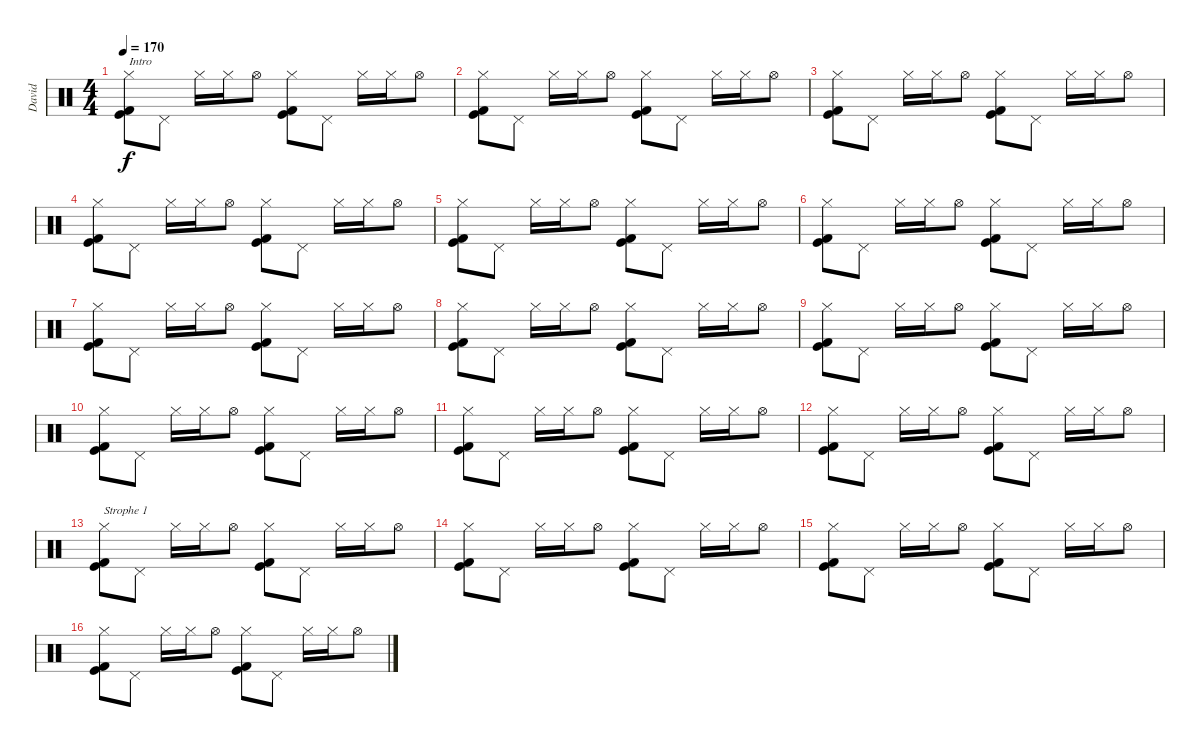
\track ("David" "David") {instrument percussion}
\staff {score}
\articulation defaults
\ts (4 4)
\tempo 170
\clef neutral
\ks c
("Hi-Hat (closed)" "Kick (hit) 2" "Kick (hit)").8{txt "Intro" dy f} "Pedal Hi-Hat (hit)".8 "Hi-Hat (closed)".16 "Hi-Hat (closed)".16 "Hi-Hat (open)".8 ("Hi-Hat (closed)" "Kick (hit) 2" "Kick (hit)").8 "Pedal Hi-Hat (hit)".8 "Hi-Hat (closed)".16 "Hi-Hat (closed)".16 "Hi-Hat (open)".8 |
("Hi-Hat (closed)" "Kick (hit) 2" "Kick (hit)").8 "Pedal Hi-Hat (hit)".8 "Hi-Hat (closed)".16 "Hi-Hat (closed)".16 "Hi-Hat (open)".8 ("Hi-Hat (closed)" "Kick (hit) 2" "Kick (hit)").8 "Pedal Hi-Hat (hit)".8 "Hi-Hat (closed)".16 "Hi-Hat (closed)".16 "Hi-Hat (open)".8 |
("Hi-Hat (closed)" "Kick (hit) 2" "Kick (hit)").8 "Pedal Hi-Hat (hit)".8 "Hi-Hat (closed)".16 "Hi-Hat (closed)".16 "Hi-Hat (open)".8 ("Hi-Hat (closed)" "Kick (hit) 2" "Kick (hit)").8 "Pedal Hi-Hat (hit)".8 "Hi-Hat (closed)".16 "Hi-Hat (closed)".16 "Hi-Hat (open)".8 |
("Hi-Hat (closed)" "Kick (hit) 2" "Kick (hit)").8 "Pedal Hi-Hat (hit)".8 "Hi-Hat (closed)".16 "Hi-Hat (closed)".16 "Hi-Hat (open)".8 ("Hi-Hat (closed)" "Kick (hit) 2" "Kick (hit)").8 "Pedal Hi-Hat (hit)".8 "Hi-Hat (closed)".16 "Hi-Hat (closed)".16 "Hi-Hat (open)".8 |
("Hi-Hat (closed)" "Kick (hit) 2" "Kick (hit)").8 "Pedal Hi-Hat (hit)".8 "Hi-Hat (closed)".16 "Hi-Hat (closed)".16 "Hi-Hat (open)".8 ("Hi-Hat (closed)" "Kick (hit) 2" "Kick (hit)").8 "Pedal Hi-Hat (hit)".8 "Hi-Hat (closed)".16 "Hi-Hat (closed)".16 "Hi-Hat (open)".8 |
("Hi-Hat (closed)" "Kick (hit) 2" "Kick (hit)").8 "Pedal Hi-Hat (hit)".8 "Hi-Hat (closed)".16 "Hi-Hat (closed)".16 "Hi-Hat (open)".8 ("Hi-Hat (closed)" "Kick (hit) 2" "Kick (hit)").8 "Pedal Hi-Hat (hit)".8 "Hi-Hat (closed)".16 "Hi-Hat (closed)".16 "Hi-Hat (open)".8 |
("Hi-Hat (closed)" "Kick (hit) 2" "Kick (hit)").8 "Pedal Hi-Hat (hit)".8 "Hi-Hat (closed)".16 "Hi-Hat (closed)".16 "Hi-Hat (open)".8 ("Hi-Hat (closed)" "Kick (hit) 2" "Kick (hit)").8 "Pedal Hi-Hat (hit)".8 "Hi-Hat (closed)".16 "Hi-Hat (closed)".16 "Hi-Hat (open)".8 |
("Hi-Hat (closed)" "Kick (hit) 2" "Kick (hit)").8 "Pedal Hi-Hat (hit)".8 "Hi-Hat (closed)".16 "Hi-Hat (closed)".16 "Hi-Hat (open)".8 ("Hi-Hat (closed)" "Kick (hit) 2" "Kick (hit)").8 "Pedal Hi-Hat (hit)".8 "Hi-Hat (closed)".16 "Hi-Hat (closed)".16 "Hi-Hat (open)".8 |
("Hi-Hat (closed)" "Kick (hit) 2" "Kick (hit)").8 "Pedal Hi-Hat (hit)".8 "Hi-Hat (closed)".16 "Hi-Hat (closed)".16 "Hi-Hat (open)".8 ("Hi-Hat (closed)" "Kick (hit) 2" "Kick (hit)").8 "Pedal Hi-Hat (hit)".8 "Hi-Hat (closed)".16 "Hi-Hat (closed)".16 "Hi-Hat (open)".8 |
("Hi-Hat (closed)" "Kick (hit) 2" "Kick (hit)").8 "Pedal Hi-Hat (hit)".8 "Hi-Hat (closed)".16 "Hi-Hat (closed)".16 "Hi-Hat (open)".8 ("Hi-Hat (closed)" "Kick (hit) 2" "Kick (hit)").8 "Pedal Hi-Hat (hit)".8 "Hi-Hat (closed)".16 "Hi-Hat (closed)".16 "Hi-Hat (open)".8 |
("Hi-Hat (closed)" "Kick (hit) 2" "Kick (hit)").8 "Pedal Hi-Hat (hit)".8 "Hi-Hat (closed)".16 "Hi-Hat (closed)".16 "Hi-Hat (open)".8 ("Hi-Hat (closed)" "Kick (hit) 2" "Kick (hit)").8 "Pedal Hi-Hat (hit)".8 "Hi-Hat (closed)".16 "Hi-Hat (closed)".16 "Hi-Hat (open)".8 |
("Hi-Hat (closed)" "Kick (hit) 2" "Kick (hit)").8 "Pedal Hi-Hat (hit)".8 "Hi-Hat (closed)".16 "Hi-Hat (closed)".16 "Hi-Hat (open)".8 ("Hi-Hat (closed)" "Kick (hit) 2" "Kick (hit)").8 "Pedal Hi-Hat (hit)".8 "Hi-Hat (closed)".16 "Hi-Hat (closed)".16 "Hi-Hat (open)".8 |
("Hi-Hat (closed)" "Kick (hit) 2" "Kick (hit)").8{txt "Strophe 1"} "Pedal Hi-Hat (hit)".8 "Hi-Hat (closed)".16 "Hi-Hat (closed)".16 "Hi-Hat (open)".8 ("Hi-Hat (closed)" "Kick (hit) 2" "Kick (hit)").8 "Pedal Hi-Hat (hit)".8 "Hi-Hat (closed)".16 "Hi-Hat (closed)".16 "Hi-Hat (open)".8 |
("Hi-Hat (closed)" "Kick (hit) 2" "Kick (hit)").8 "Pedal Hi-Hat (hit)".8 "Hi-Hat (closed)".16 "Hi-Hat (closed)".16 "Hi-Hat (open)".8 ("Hi-Hat (closed)" "Kick (hit) 2" "Kick (hit)").8 "Pedal Hi-Hat (hit)".8 "Hi-Hat (closed)".16 "Hi-Hat (closed)".16 "Hi-Hat (open)".8 |
("Hi-Hat (closed)" "Kick (hit) 2" "Kick (hit)").8 "Pedal Hi-Hat (hit)".8 "Hi-Hat (closed)".16 "Hi-Hat (closed)".16 "Hi-Hat (open)".8 ("Hi-Hat (closed)" "Kick (hit) 2" "Kick (hit)").8 "Pedal Hi-Hat (hit)".8 "Hi-Hat (closed)".16 "Hi-Hat (closed)".16 "Hi-Hat (open)".8 |
("Hi-Hat (closed)" "Kick (hit) 2" "Kick (hit)").8 "Pedal Hi-Hat (hit)".8 "Hi-Hat (closed)".16 "Hi-Hat (closed)".16 "Hi-Hat (open)".8 ("Hi-Hat (closed)" "Kick (hit) 2" "Kick (hit)").8 "Pedal Hi-Hat (hit)".8 "Hi-Hat (closed)".16 "Hi-Hat (closed)".16 "Hi-Hat (open)".8
